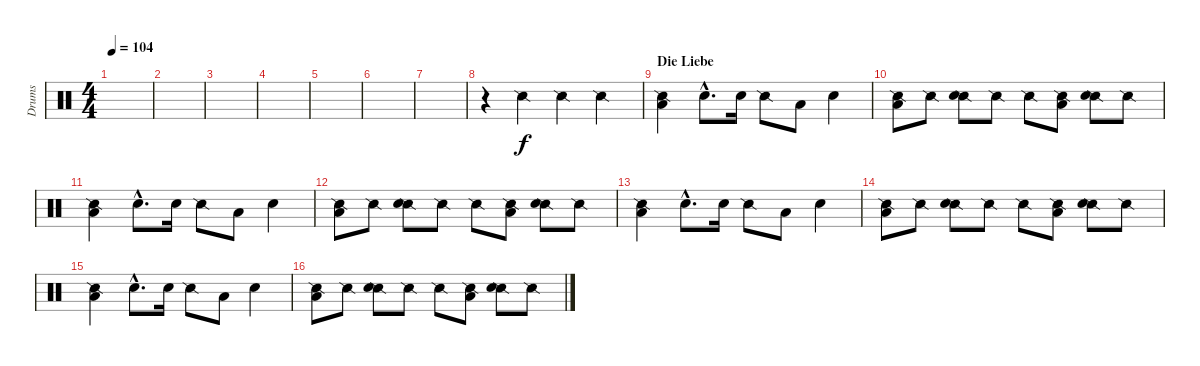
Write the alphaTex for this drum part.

\track ("Drums" "Drums") {instrument percussion}
\staff {score}
\articulation defaults
\ts (4 4)
\tempo 104
\clef neutral
\ks c
|
|
|
|
|
|
|
r.4 "Snare (side stick) 2".4 "Snare (side stick) 2".4 "Snare (side stick) 2".4 |
\section ("" "Die Liebe")
("Snare (side stick) 2" "Low Floor Tom (hit)").4 "Snare (hit) 2"{hac}.8{d} "Snare (hit) 2".16 "Snare (side stick) 2".8 "Low Floor Tom (hit)".8 "Snare (hit) 2".4 |
("Snare (side stick) 2" "Low Floor Tom (hit)").8 "Snare (side stick) 2".8 ("Snare (side stick) 2" "Snare (hit) 2").8 "Snare (side stick) 2".8 "Snare (side stick) 2".8 ("Snare (side stick) 2" "Low Floor Tom (hit)").8 ("Snare (side stick) 2" "Snare (hit) 2").8 "Snare (side stick) 2".8 |
("Snare (side stick) 2" "Low Floor Tom (hit)").4 "Snare (hit) 2"{hac}.8{d} "Snare (hit) 2".16 "Snare (side stick) 2".8 "Low Floor Tom (hit)".8 "Snare (hit) 2".4 |
("Snare (side stick) 2" "Low Floor Tom (hit)").8 "Snare (side stick) 2".8 ("Snare (side stick) 2" "Snare (hit) 2").8 "Snare (side stick) 2".8 "Snare (side stick) 2".8 ("Snare (side stick) 2" "Low Floor Tom (hit)").8 ("Snare (side stick) 2" "Snare (hit) 2").8 "Snare (side stick) 2".8 |
("Snare (side stick) 2" "Low Floor Tom (hit)").4 "Snare (hit) 2"{hac}.8{d} "Snare (hit) 2".16 "Snare (side stick) 2".8 "Low Floor Tom (hit)".8 "Snare (hit) 2".4 |
("Snare (side stick) 2" "Low Floor Tom (hit)").8 "Snare (side stick) 2".8 ("Snare (side stick) 2" "Snare (hit) 2").8 "Snare (side stick) 2".8 "Snare (side stick) 2".8 ("Snare (side stick) 2" "Low Floor Tom (hit)").8 ("Snare (side stick) 2" "Snare (hit) 2").8 "Snare (side stick) 2".8 |
("Snare (side stick) 2" "Low Floor Tom (hit)").4 "Snare (hit) 2"{hac}.8{d} "Snare (hit) 2".16 "Snare (side stick) 2".8 "Low Floor Tom (hit)".8 "Snare (hit) 2".4 |
("Snare (side stick) 2" "Low Floor Tom (hit)").8 "Snare (side stick) 2".8 ("Snare (side stick) 2" "Snare (hit) 2").8 "Snare (side stick) 2".8 "Snare (side stick) 2".8 ("Snare (side stick) 2" "Low Floor Tom (hit)").8 ("Snare (side stick) 2" "Snare (hit) 2").8 "Snare (side stick) 2".8
